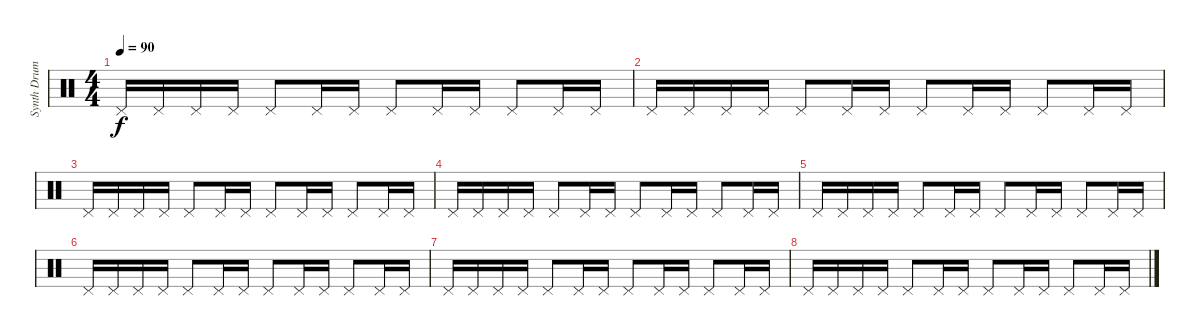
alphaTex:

\track ("Synth Drums" "Synth Drum") {instrument percussion}
\staff {score}
\articulation defaults
\ts (4 4)
\tempo 90
\clef neutral
\ks c "Pedal Hi-Hat (hit)".16{dy f} "Pedal Hi-Hat (hit)".16 "Pedal Hi-Hat (hit)".16 "Pedal Hi-Hat (hit)".16 "Pedal Hi-Hat (hit)".8 "Pedal Hi-Hat (hit)".16 "Pedal Hi-Hat (hit)".16 "Pedal Hi-Hat (hit)".8 "Pedal Hi-Hat (hit)".16 "Pedal Hi-Hat (hit)".16 "Pedal Hi-Hat (hit)".8 "Pedal Hi-Hat (hit)".16 "Pedal Hi-Hat (hit)".16
|
"Pedal Hi-Hat (hit)".16 "Pedal Hi-Hat (hit)".16 "Pedal Hi-Hat (hit)".16 "Pedal Hi-Hat (hit)".16 "Pedal Hi-Hat (hit)".8 "Pedal Hi-Hat (hit)".16 "Pedal Hi-Hat (hit)".16 "Pedal Hi-Hat (hit)".8 "Pedal Hi-Hat (hit)".16 "Pedal Hi-Hat (hit)".16 "Pedal Hi-Hat (hit)".8 "Pedal Hi-Hat (hit)".16 "Pedal Hi-Hat (hit)".16 |
"Pedal Hi-Hat (hit)".16 "Pedal Hi-Hat (hit)".16 "Pedal Hi-Hat (hit)".16 "Pedal Hi-Hat (hit)".16 "Pedal Hi-Hat (hit)".8 "Pedal Hi-Hat (hit)".16 "Pedal Hi-Hat (hit)".16 "Pedal Hi-Hat (hit)".8 "Pedal Hi-Hat (hit)".16 "Pedal Hi-Hat (hit)".16 "Pedal Hi-Hat (hit)".8 "Pedal Hi-Hat (hit)".16 "Pedal Hi-Hat (hit)".16 |
"Pedal Hi-Hat (hit)".16 "Pedal Hi-Hat (hit)".16 "Pedal Hi-Hat (hit)".16 "Pedal Hi-Hat (hit)".16 "Pedal Hi-Hat (hit)".8 "Pedal Hi-Hat (hit)".16 "Pedal Hi-Hat (hit)".16 "Pedal Hi-Hat (hit)".8 "Pedal Hi-Hat (hit)".16 "Pedal Hi-Hat (hit)".16 "Pedal Hi-Hat (hit)".8 "Pedal Hi-Hat (hit)".16 "Pedal Hi-Hat (hit)".16 |
"Pedal Hi-Hat (hit)".16 "Pedal Hi-Hat (hit)".16 "Pedal Hi-Hat (hit)".16 "Pedal Hi-Hat (hit)".16 "Pedal Hi-Hat (hit)".8 "Pedal Hi-Hat (hit)".16 "Pedal Hi-Hat (hit)".16 "Pedal Hi-Hat (hit)".8 "Pedal Hi-Hat (hit)".16 "Pedal Hi-Hat (hit)".16 "Pedal Hi-Hat (hit)".8 "Pedal Hi-Hat (hit)".16 "Pedal Hi-Hat (hit)".16 |
"Pedal Hi-Hat (hit)".16 "Pedal Hi-Hat (hit)".16 "Pedal Hi-Hat (hit)".16 "Pedal Hi-Hat (hit)".16 "Pedal Hi-Hat (hit)".8 "Pedal Hi-Hat (hit)".16 "Pedal Hi-Hat (hit)".16 "Pedal Hi-Hat (hit)".8 "Pedal Hi-Hat (hit)".16 "Pedal Hi-Hat (hit)".16 "Pedal Hi-Hat (hit)".8 "Pedal Hi-Hat (hit)".16 "Pedal Hi-Hat (hit)".16 |
"Pedal Hi-Hat (hit)".16 "Pedal Hi-Hat (hit)".16 "Pedal Hi-Hat (hit)".16 "Pedal Hi-Hat (hit)".16 "Pedal Hi-Hat (hit)".8 "Pedal Hi-Hat (hit)".16 "Pedal Hi-Hat (hit)".16 "Pedal Hi-Hat (hit)".8 "Pedal Hi-Hat (hit)".16 "Pedal Hi-Hat (hit)".16 "Pedal Hi-Hat (hit)".8 "Pedal Hi-Hat (hit)".16 "Pedal Hi-Hat (hit)".16 |
"Pedal Hi-Hat (hit)".16 "Pedal Hi-Hat (hit)".16 "Pedal Hi-Hat (hit)".16 "Pedal Hi-Hat (hit)".16 "Pedal Hi-Hat (hit)".8 "Pedal Hi-Hat (hit)".16 "Pedal Hi-Hat (hit)".16 "Pedal Hi-Hat (hit)".8 "Pedal Hi-Hat (hit)".16 "Pedal Hi-Hat (hit)".16 "Pedal Hi-Hat (hit)".8 "Pedal Hi-Hat (hit)".16 "Pedal Hi-Hat (hit)".16
